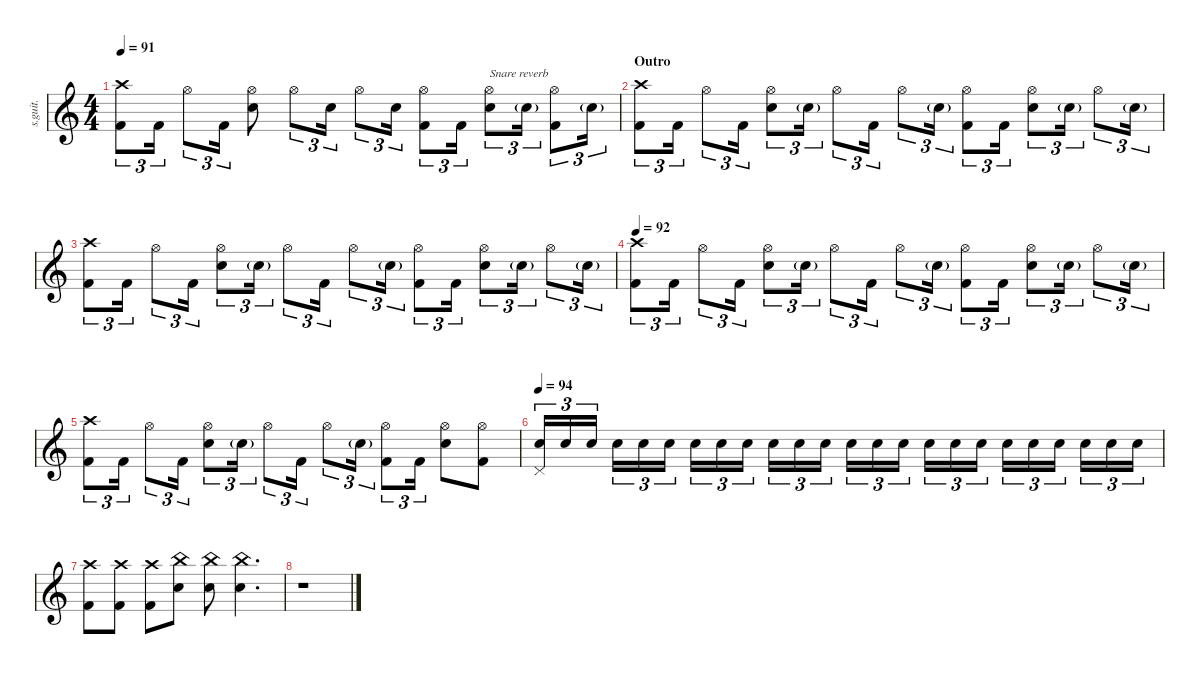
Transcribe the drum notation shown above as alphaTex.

\defaultSystemsLayout 4
\hideDynamics
\bracketExtendMode nobrackets
\track ("Brad Wilk - Drums" "s.guit.") {instrument percussion}
\staff {score}
\articulation defaults
\ts (4 4)
\tempo 91
\clef g2
\ks c
("Crash high (hit)" "Kick (hit) 2").8{tu (3 2) lyrics (0 "") lyrics (1 "") lyrics (2 "") lyrics (3 "") lyrics (4 "") dy f} "Kick (hit) 2".16{tu (3 2) lyrics (0 "") lyrics (1 "") lyrics (2 "") lyrics (3 "") lyrics (4 "")} "Hi-Hat (open)".8{tu (3 2) lyrics (0 "") lyrics (1 "") lyrics (2 "") lyrics (3 "") lyrics (4 "")} "Kick (hit) 2".16{tu (3 2) lyrics (0 "") lyrics (1 "") lyrics (2 "") lyrics (3 "") lyrics (4 "")} ("Hi-Hat (open)" "Snare (hit) 2").8{lyrics (0 "") lyrics (1 "") lyrics (2 "") lyrics (3 "") lyrics (4 "")} "Hi-Hat (open)".8{tu (3 2) lyrics (0 "") lyrics (1 "") lyrics (2 "") lyrics (3 "") lyrics (4 "")} "Snare (hit) 2".16{tu (3 2) lyrics (0 "") lyrics (1 "") lyrics (2 "") lyrics (3 "") lyrics (4 "")} "Hi-Hat (open)".8{tu (3 2) lyrics (0 "") lyrics (1 "") lyrics (2 "") lyrics (3 "") lyrics (4 "")} "Snare (hit) 2".16{tu (3 2) lyrics (0 "") lyrics (1 "") lyrics (2 "") lyrics (3 "") lyrics (4 "") dy mf} ("Hi-Hat (open)" "Kick (hit) 2").8{tu (3 2) lyrics (0 "") lyrics (1 "") lyrics (2 "") lyrics (3 "") lyrics (4 "") dy f} "Kick (hit) 2".16{tu (3 2) lyrics (0 "") lyrics (1 "") lyrics (2 "") lyrics (3 "") lyrics (4 "")} ("Hi-Hat (open)" "Snare (hit) 2").8{tu (3 2) txt "Snare reverb" lyrics (0 "") lyrics (1 "") lyrics (2 "") lyrics (3 "") lyrics (4 "")} "Snare (hit) 2"{g}.16{tu (3 2) lyrics (0 "") lyrics (1 "") lyrics (2 "") lyrics (3 "") lyrics (4 "") dy mp} ("Hi-Hat (open)" "Kick (hit) 2").8{tu (3 2) lyrics (0 "") lyrics (1 "") lyrics (2 "") lyrics (3 "") lyrics (4 "") dy f} "Snare (hit) 2"{g}.16{tu (3 2) lyrics (0 "") lyrics (1 "") lyrics (2 "") lyrics (3 "") lyrics (4 "") dy mp} |
\section ("" "Outro")
("Crash high (hit)" "Kick (hit) 2").8{tu (3 2) lyrics (0 "") lyrics (1 "") lyrics (2 "") lyrics (3 "") lyrics (4 "") dy f} "Kick (hit) 2".16{tu (3 2) lyrics (0 "") lyrics (1 "") lyrics (2 "") lyrics (3 "") lyrics (4 "")} "Hi-Hat (open)".8{tu (3 2) lyrics (0 "") lyrics (1 "") lyrics (2 "") lyrics (3 "") lyrics (4 "")} "Kick (hit) 2".16{tu (3 2) lyrics (0 "") lyrics (1 "") lyrics (2 "") lyrics (3 "") lyrics (4 "")} ("Hi-Hat (open)" "Snare (hit) 2").8{tu (3 2) lyrics (0 "") lyrics (1 "") lyrics (2 "") lyrics (3 "") lyrics (4 "")} "Snare (hit) 2"{g}.16{tu (3 2) lyrics (0 "") lyrics (1 "") lyrics (2 "") lyrics (3 "") lyrics (4 "") dy mp} "Hi-Hat (open)".8{tu (3 2) lyrics (0 "") lyrics (1 "") lyrics (2 "") lyrics (3 "") lyrics (4 "") dy f} "Kick (hit) 2".16{tu (3 2) lyrics (0 "") lyrics (1 "") lyrics (2 "") lyrics (3 "") lyrics (4 "")} "Hi-Hat (open)".8{tu (3 2) lyrics (0 "") lyrics (1 "") lyrics (2 "") lyrics (3 "") lyrics (4 "")} "Snare (hit) 2"{g}.16{tu (3 2) lyrics (0 "") lyrics (1 "") lyrics (2 "") lyrics (3 "") lyrics (4 "") dy mp} ("Hi-Hat (open)" "Kick (hit) 2").8{tu (3 2) lyrics (0 "") lyrics (1 "") lyrics (2 "") lyrics (3 "") lyrics (4 "") dy f} "Kick (hit) 2".16{tu (3 2) lyrics (0 "") lyrics (1 "") lyrics (2 "") lyrics (3 "") lyrics (4 "")} ("Hi-Hat (open)" "Snare (hit) 2").8{tu (3 2) lyrics (0 "") lyrics (1 "") lyrics (2 "") lyrics (3 "") lyrics (4 "")} "Snare (hit) 2"{g}.16{tu (3 2) lyrics (0 "") lyrics (1 "") lyrics (2 "") lyrics (3 "") lyrics (4 "") dy mp} "Hi-Hat (open)".8{tu (3 2) lyrics (0 "") lyrics (1 "") lyrics (2 "") lyrics (3 "") lyrics (4 "") dy f} "Snare (hit) 2"{g}.16{tu (3 2) lyrics (0 "") lyrics (1 "") lyrics (2 "") lyrics (3 "") lyrics (4 "") dy mp} |
("Crash high (hit)" "Kick (hit) 2").8{tu (3 2) lyrics (0 "") lyrics (1 "") lyrics (2 "") lyrics (3 "") lyrics (4 "") dy f} "Kick (hit) 2".16{tu (3 2) lyrics (0 "") lyrics (1 "") lyrics (2 "") lyrics (3 "") lyrics (4 "")} "Hi-Hat (open)".8{tu (3 2) lyrics (0 "") lyrics (1 "") lyrics (2 "") lyrics (3 "") lyrics (4 "")} "Kick (hit) 2".16{tu (3 2) lyrics (0 "") lyrics (1 "") lyrics (2 "") lyrics (3 "") lyrics (4 "")} ("Hi-Hat (open)" "Snare (hit) 2").8{tu (3 2) lyrics (0 "") lyrics (1 "") lyrics (2 "") lyrics (3 "") lyrics (4 "")} "Snare (hit) 2"{g}.16{tu (3 2) lyrics (0 "") lyrics (1 "") lyrics (2 "") lyrics (3 "") lyrics (4 "") dy mp} "Hi-Hat (open)".8{tu (3 2) lyrics (0 "") lyrics (1 "") lyrics (2 "") lyrics (3 "") lyrics (4 "") dy f} "Kick (hit) 2".16{tu (3 2) lyrics (0 "") lyrics (1 "") lyrics (2 "") lyrics (3 "") lyrics (4 "")} "Hi-Hat (open)".8{tu (3 2) lyrics (0 "") lyrics (1 "") lyrics (2 "") lyrics (3 "") lyrics (4 "")} "Snare (hit) 2"{g}.16{tu (3 2) lyrics (0 "") lyrics (1 "") lyrics (2 "") lyrics (3 "") lyrics (4 "") dy mp} ("Hi-Hat (open)" "Kick (hit) 2").8{tu (3 2) lyrics (0 "") lyrics (1 "") lyrics (2 "") lyrics (3 "") lyrics (4 "") dy f} "Kick (hit) 2".16{tu (3 2) lyrics (0 "") lyrics (1 "") lyrics (2 "") lyrics (3 "") lyrics (4 "")} ("Hi-Hat (open)" "Snare (hit) 2").8{tu (3 2) lyrics (0 "") lyrics (1 "") lyrics (2 "") lyrics (3 "") lyrics (4 "")} "Snare (hit) 2"{g}.16{tu (3 2) lyrics (0 "") lyrics (1 "") lyrics (2 "") lyrics (3 "") lyrics (4 "") dy mp} "Hi-Hat (open)".8{tu (3 2) lyrics (0 "") lyrics (1 "") lyrics (2 "") lyrics (3 "") lyrics (4 "") dy f} "Snare (hit) 2"{g}.16{tu (3 2) lyrics (0 "") lyrics (1 "") lyrics (2 "") lyrics (3 "") lyrics (4 "") dy mp} |
\tempo 92
("Crash high (hit)" "Kick (hit) 2").8{tu (3 2) lyrics (0 "") lyrics (1 "") lyrics (2 "") lyrics (3 "") lyrics (4 "") dy f} "Kick (hit) 2".16{tu (3 2) lyrics (0 "") lyrics (1 "") lyrics (2 "") lyrics (3 "") lyrics (4 "")} "Hi-Hat (open)".8{tu (3 2) lyrics (0 "") lyrics (1 "") lyrics (2 "") lyrics (3 "") lyrics (4 "")} "Kick (hit) 2".16{tu (3 2) lyrics (0 "") lyrics (1 "") lyrics (2 "") lyrics (3 "") lyrics (4 "")} ("Hi-Hat (open)" "Snare (hit) 2").8{tu (3 2) lyrics (0 "") lyrics (1 "") lyrics (2 "") lyrics (3 "") lyrics (4 "")} "Snare (hit) 2"{g}.16{tu (3 2) lyrics (0 "") lyrics (1 "") lyrics (2 "") lyrics (3 "") lyrics (4 "") dy mp} "Hi-Hat (open)".8{tu (3 2) lyrics (0 "") lyrics (1 "") lyrics (2 "") lyrics (3 "") lyrics (4 "") dy f} "Kick (hit) 2".16{tu (3 2) lyrics (0 "") lyrics (1 "") lyrics (2 "") lyrics (3 "") lyrics (4 "")} "Hi-Hat (open)".8{tu (3 2) lyrics (0 "") lyrics (1 "") lyrics (2 "") lyrics (3 "") lyrics (4 "")} "Snare (hit) 2"{g}.16{tu (3 2) lyrics (0 "") lyrics (1 "") lyrics (2 "") lyrics (3 "") lyrics (4 "") dy mp} ("Hi-Hat (open)" "Kick (hit) 2").8{tu (3 2) lyrics (0 "") lyrics (1 "") lyrics (2 "") lyrics (3 "") lyrics (4 "") dy f} "Kick (hit) 2".16{tu (3 2) lyrics (0 "") lyrics (1 "") lyrics (2 "") lyrics (3 "") lyrics (4 "")} ("Hi-Hat (open)" "Snare (hit) 2").8{tu (3 2) lyrics (0 "") lyrics (1 "") lyrics (2 "") lyrics (3 "") lyrics (4 "")} "Snare (hit) 2"{g}.16{tu (3 2) lyrics (0 "") lyrics (1 "") lyrics (2 "") lyrics (3 "") lyrics (4 "") dy mp} "Hi-Hat (open)".8{tu (3 2) lyrics (0 "") lyrics (1 "") lyrics (2 "") lyrics (3 "") lyrics (4 "") dy f} "Snare (hit) 2"{g}.16{tu (3 2) lyrics (0 "") lyrics (1 "") lyrics (2 "") lyrics (3 "") lyrics (4 "") dy mp} |
("Crash high (hit)" "Kick (hit) 2").8{tu (3 2) lyrics (0 "") lyrics (1 "") lyrics (2 "") lyrics (3 "") lyrics (4 "") dy f} "Kick (hit) 2".16{tu (3 2) lyrics (0 "") lyrics (1 "") lyrics (2 "") lyrics (3 "") lyrics (4 "")} "Hi-Hat (open)".8{tu (3 2) lyrics (0 "") lyrics (1 "") lyrics (2 "") lyrics (3 "") lyrics (4 "")} "Kick (hit) 2".16{tu (3 2) lyrics (0 "") lyrics (1 "") lyrics (2 "") lyrics (3 "") lyrics (4 "")} ("Hi-Hat (open)" "Snare (hit) 2").8{tu (3 2) lyrics (0 "") lyrics (1 "") lyrics (2 "") lyrics (3 "") lyrics (4 "")} "Snare (hit) 2"{g}.16{tu (3 2) lyrics (0 "") lyrics (1 "") lyrics (2 "") lyrics (3 "") lyrics (4 "") dy mp} "Hi-Hat (open)".8{tu (3 2) lyrics (0 "") lyrics (1 "") lyrics (2 "") lyrics (3 "") lyrics (4 "") dy f} "Kick (hit) 2".16{tu (3 2) lyrics (0 "") lyrics (1 "") lyrics (2 "") lyrics (3 "") lyrics (4 "")} "Hi-Hat (open)".8{tu (3 2) lyrics (0 "") lyrics (1 "") lyrics (2 "") lyrics (3 "") lyrics (4 "")} "Snare (hit) 2"{g}.16{tu (3 2) lyrics (0 "") lyrics (1 "") lyrics (2 "") lyrics (3 "") lyrics (4 "") dy mp} ("Hi-Hat (open)" "Kick (hit) 2").8{tu (3 2) lyrics (0 "") lyrics (1 "") lyrics (2 "") lyrics (3 "") lyrics (4 "") dy f} "Kick (hit) 2".16{tu (3 2) lyrics (0 "") lyrics (1 "") lyrics (2 "") lyrics (3 "") lyrics (4 "")} ("Hi-Hat (open)" "Snare (hit) 2").8{lyrics (0 "") lyrics (1 "") lyrics (2 "") lyrics (3 "") lyrics (4 "")} ("Hi-Hat (open)" "Kick (hit) 2").8{lyrics (0 "") lyrics (1 "") lyrics (2 "") lyrics (3 "") lyrics (4 "")} |
\tempo 94
("Snare (hit) 2" "Pedal Hi-Hat (hit)").16{tu (3 2) lyrics (0 "") lyrics (1 "") lyrics (2 "") lyrics (3 "") lyrics (4 "")} "Snare (hit) 2".16{tu (3 2) lyrics (0 "") lyrics (1 "") lyrics (2 "") lyrics (3 "") lyrics (4 "")} "Snare (hit) 2".16{tu (3 2) lyrics (0 "") lyrics (1 "") lyrics (2 "") lyrics (3 "") lyrics (4 "")} "Snare (hit) 2".16{tu (3 2) lyrics (0 "") lyrics (1 "") lyrics (2 "") lyrics (3 "") lyrics (4 "")} "Snare (hit) 2".16{tu (3 2) lyrics (0 "") lyrics (1 "") lyrics (2 "") lyrics (3 "") lyrics (4 "")} "Snare (hit) 2".16{tu (3 2) lyrics (0 "") lyrics (1 "") lyrics (2 "") lyrics (3 "") lyrics (4 "")} "Snare (hit) 2".16{tu (3 2) lyrics (0 "") lyrics (1 "") lyrics (2 "") lyrics (3 "") lyrics (4 "")} "Snare (hit) 2".16{tu (3 2) lyrics (0 "") lyrics (1 "") lyrics (2 "") lyrics (3 "") lyrics (4 "")} "Snare (hit) 2".16{tu (3 2) lyrics (0 "") lyrics (1 "") lyrics (2 "") lyrics (3 "") lyrics (4 "")} "Snare (hit) 2".16{tu (3 2) lyrics (0 "") lyrics (1 "") lyrics (2 "") lyrics (3 "") lyrics (4 "")} "Snare (hit) 2".16{tu (3 2) lyrics (0 "") lyrics (1 "") lyrics (2 "") lyrics (3 "") lyrics (4 "")} "Snare (hit) 2".16{tu (3 2) lyrics (0 "") lyrics (1 "") lyrics (2 "") lyrics (3 "") lyrics (4 "")} "Snare (hit) 2".16{tu (3 2) lyrics (0 "") lyrics (1 "") lyrics (2 "") lyrics (3 "") lyrics (4 "")} "Snare (hit) 2".16{tu (3 2) lyrics (0 "") lyrics (1 "") lyrics (2 "") lyrics (3 "") lyrics (4 "")} "Snare (hit) 2".16{tu (3 2) lyrics (0 "") lyrics (1 "") lyrics (2 "") lyrics (3 "") lyrics (4 "")} "Snare (hit) 2".16{tu (3 2) lyrics (0 "") lyrics (1 "") lyrics (2 "") lyrics (3 "") lyrics (4 "")} "Snare (hit) 2".16{tu (3 2) lyrics (0 "") lyrics (1 "") lyrics (2 "") lyrics (3 "") lyrics (4 "")} "Snare (hit) 2".16{tu (3 2) lyrics (0 "") lyrics (1 "") lyrics (2 "") lyrics (3 "") lyrics (4 "")} "Snare (hit) 2".16{tu (3 2) lyrics (0 "") lyrics (1 "") lyrics (2 "") lyrics (3 "") lyrics (4 "")} "Snare (hit) 2".16{tu (3 2) lyrics (0 "") lyrics (1 "") lyrics (2 "") lyrics (3 "") lyrics (4 "")} "Snare (hit) 2".16{tu (3 2) lyrics (0 "") lyrics (1 "") lyrics (2 "") lyrics (3 "") lyrics (4 "")} "Snare (hit) 2".16{tu (3 2) lyrics (0 "") lyrics (1 "") lyrics (2 "") lyrics (3 "") lyrics (4 "")} "Snare (hit) 2".16{tu (3 2) lyrics (0 "") lyrics (1 "") lyrics (2 "") lyrics (3 "") lyrics (4 "")} "Snare (hit) 2".16{tu (3 2) lyrics (0 "") lyrics (1 "") lyrics (2 "") lyrics (3 "") lyrics (4 "")} |
("Crash high (hit)" "Kick (hit) 2").8{lyrics (0 "") lyrics (1 "") lyrics (2 "") lyrics (3 "") lyrics (4 "")} ("Crash high (hit)" "Kick (hit) 2").8{lyrics (0 "") lyrics (1 "") lyrics (2 "") lyrics (3 "") lyrics (4 "")} ("Crash high (hit)" "Kick (hit) 2").8{lyrics (0 "") lyrics (1 "") lyrics (2 "") lyrics (3 "") lyrics (4 "")} ("Snare (hit) 2" "China (hit)").8{lyrics (0 "") lyrics (1 "") lyrics (2 "") lyrics (3 "") lyrics (4 "")} ("Snare (hit) 2" "China (hit)").8{lyrics (0 "") lyrics (1 "") lyrics (2 "") lyrics (3 "") lyrics (4 "")} ("Snare (hit) 2" "China (hit)").4{d lyrics (0 "") lyrics (1 "") lyrics (2 "") lyrics (3 "") lyrics (4 "")} |
r.1
